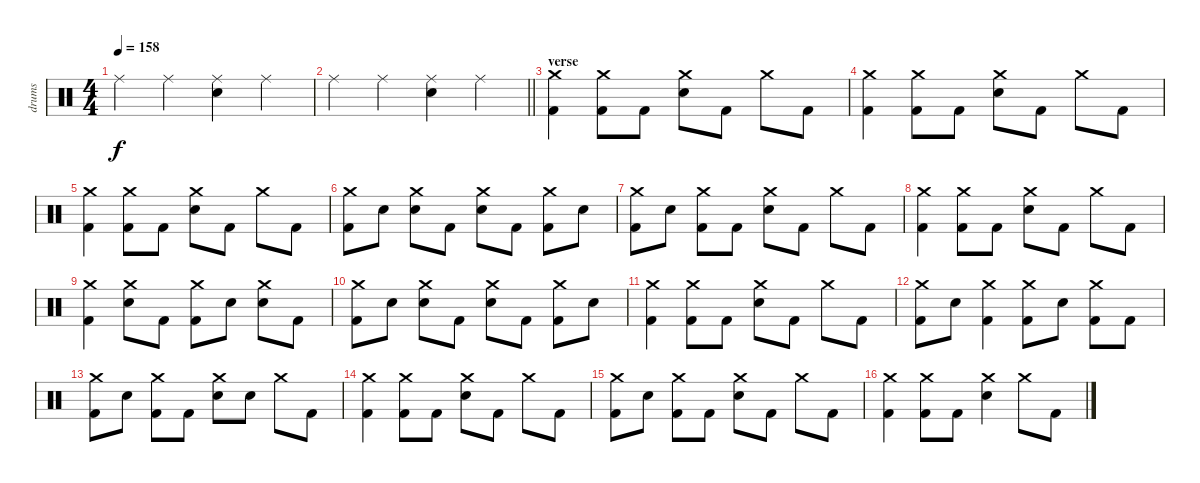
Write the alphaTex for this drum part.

\track ("drums" "drums") {instrument percussion}
\staff {score}
\articulation defaults
\ts (4 4)
\tempo 158
\clef neutral
\ks c "Ride (middle)".4{dy f} "Ride (middle)".4
("Ride (middle)" "Electric Snare (hit)").4 "Ride (middle)".4 |
\barLineRight lightlight "Ride (middle)".4 "Ride (middle)".4
("Ride (middle)" "Electric Snare (hit)").4 "Ride (middle)".4 |
\section ("" "verse")
("Crash medium (hit)" "Kick (hit) 2").4 ("Crash medium (hit)" "Kick (hit) 2").8 "Kick (hit) 2".8 ("Crash medium (hit)" "Electric Snare (hit)").8 "Kick (hit) 2".8 "Crash medium (hit)".8 "Kick (hit) 2".8 |
("Crash medium (hit)" "Kick (hit) 2").4 ("Crash medium (hit)" "Kick (hit) 2").8 "Kick (hit) 2".8 ("Crash medium (hit)" "Electric Snare (hit)").8 "Kick (hit) 2".8 "Crash medium (hit)".8 "Kick (hit) 2".8 |
("Crash medium (hit)" "Kick (hit) 2").4 ("Crash medium (hit)" "Kick (hit) 2").8 "Kick (hit) 2".8 ("Crash medium (hit)" "Electric Snare (hit)").8 "Kick (hit) 2".8 "Crash medium (hit)".8 "Kick (hit) 2".8 |
("Crash medium (hit)" "Kick (hit) 2").8 "Electric Snare (hit)".8 ("Crash medium (hit)" "Electric Snare (hit)").8 "Kick (hit) 2".8 ("Crash medium (hit)" "Electric Snare (hit)").8 "Kick (hit) 2".8 ("Crash medium (hit)" "Kick (hit) 2").8 "Electric Snare (hit)".8 |
("Crash medium (hit)" "Kick (hit) 2").8 "Electric Snare (hit)".8 ("Crash medium (hit)" "Kick (hit) 2").8 "Kick (hit) 2".8 ("Crash medium (hit)" "Electric Snare (hit)").8 "Kick (hit) 2".8 "Crash medium (hit)".8 "Kick (hit) 2".8 |
("Crash medium (hit)" "Kick (hit) 2").4 ("Crash medium (hit)" "Kick (hit) 2").8 "Kick (hit) 2".8 ("Crash medium (hit)" "Electric Snare (hit)").8 "Kick (hit) 2".8 "Crash medium (hit)".8 "Kick (hit) 2".8 |
("Crash medium (hit)" "Kick (hit) 2").4 ("Crash medium (hit)" "Electric Snare (hit)").8 "Kick (hit) 2".8 ("Crash medium (hit)" "Kick (hit) 2").8 "Electric Snare (hit)".8 ("Crash medium (hit)" "Electric Snare (hit)").8 "Kick (hit) 2".8 |
("Crash medium (hit)" "Kick (hit) 2").8 "Electric Snare (hit)".8 ("Crash medium (hit)" "Electric Snare (hit)").8 "Kick (hit) 2".8 ("Crash medium (hit)" "Electric Snare (hit)").8 "Kick (hit) 2".8 ("Crash medium (hit)" "Kick (hit) 2").8 "Electric Snare (hit)".8 |
("Crash medium (hit)" "Kick (hit) 2").4 ("Crash medium (hit)" "Kick (hit) 2").8 "Kick (hit) 2".8 ("Crash medium (hit)" "Electric Snare (hit)").8 "Kick (hit) 2".8 "Crash medium (hit)".8 "Kick (hit) 2".8 |
("Crash medium (hit)" "Kick (hit) 2").8 "Electric Snare (hit)".8 ("Crash medium (hit)" "Kick (hit) 2").4 ("Crash medium (hit)" "Kick (hit) 2").8 "Electric Snare (hit)".8 ("Crash medium (hit)" "Kick (hit) 2").8 "Kick (hit) 2".8 |
("Crash medium (hit)" "Kick (hit) 2").8 "Electric Snare (hit)".8 ("Crash medium (hit)" "Kick (hit) 2").8 "Kick (hit) 2".8 ("Crash medium (hit)" "Electric Snare (hit)").8 "Electric Snare (hit)".8 "Crash medium (hit)".8 "Kick (hit) 2".8 |
("Crash medium (hit)" "Kick (hit) 2").4 ("Crash medium (hit)" "Kick (hit) 2").8 "Kick (hit) 2".8 ("Crash medium (hit)" "Electric Snare (hit)").8 "Kick (hit) 2".8 "Crash medium (hit)".8 "Kick (hit) 2".8 |
("Crash medium (hit)" "Kick (hit) 2").8 "Electric Snare (hit)".8 ("Crash medium (hit)" "Kick (hit) 2").8 "Kick (hit) 2".8 ("Crash medium (hit)" "Electric Snare (hit)").8 "Kick (hit) 2".8 "Crash medium (hit)".8 "Kick (hit) 2".8 |
("Crash medium (hit)" "Kick (hit) 2").4 ("Crash medium (hit)" "Kick (hit) 2").8 "Kick (hit) 2".8 ("Crash medium (hit)" "Electric Snare (hit)").4 "Crash medium (hit)".8 "Kick (hit) 2".8
